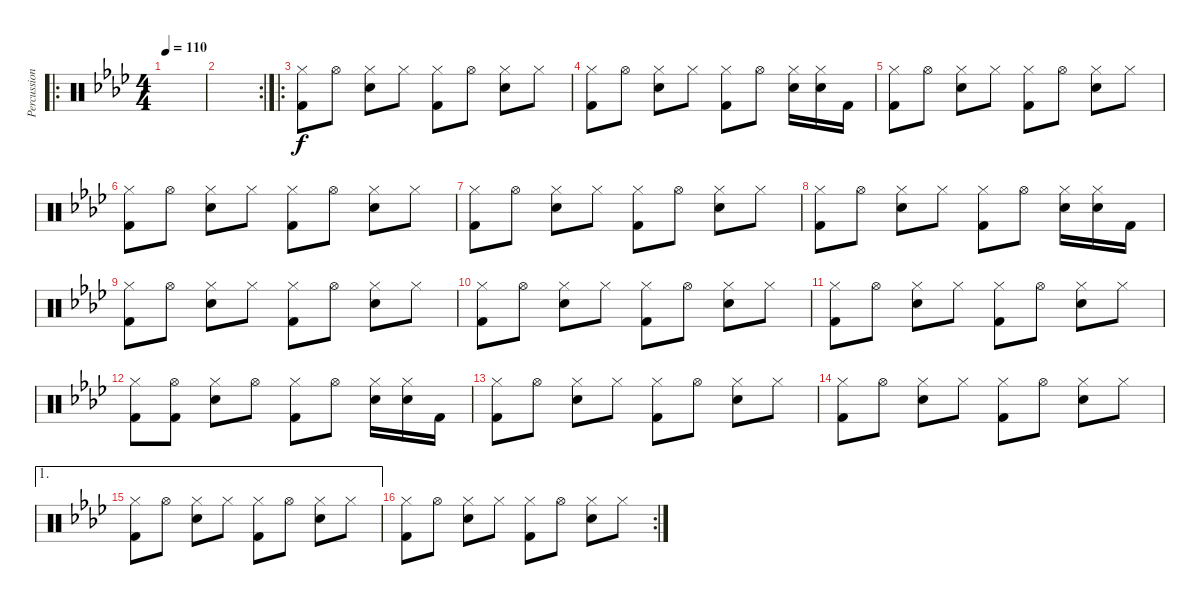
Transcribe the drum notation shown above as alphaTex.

\track ("Percussions" "Percussion") {instrument percussion}
\staff {score}
\articulation defaults
\ro
\ts (4 4)
\tempo 110
\clef neutral
\ks ab
|
\rc 2
|
\ro
("Kick (hit) 2" "Hi-Hat (closed)").8 "Hi-Hat (open)".8 ("Electric Snare (hit)" "Hi-Hat (closed)").8 "Hi-Hat (closed)".8 ("Kick (hit) 2" "Hi-Hat (closed)").8 "Hi-Hat (open)".8 ("Electric Snare (hit)" "Hi-Hat (closed)").8 "Hi-Hat (closed)".8 |
("Hi-Hat (closed)" "Kick (hit) 2").8 "Hi-Hat (open)".8 ("Hi-Hat (closed)" "Electric Snare (hit)").8 "Hi-Hat (closed)".8 ("Hi-Hat (closed)" "Kick (hit) 2").8 "Hi-Hat (open)".8 ("Hi-Hat (closed)" "Electric Snare (hit)").16 ("Hi-Hat (closed)" "Electric Snare (hit)").16 "Kick (hit) 2".16 |
("Kick (hit) 2" "Hi-Hat (closed)").8 "Hi-Hat (open)".8 ("Hi-Hat (closed)" "Electric Snare (hit)").8 "Hi-Hat (closed)".8 ("Hi-Hat (closed)" "Kick (hit) 2").8 "Hi-Hat (open)".8 ("Hi-Hat (closed)" "Electric Snare (hit)").8 "Hi-Hat (closed)".8 |
("Hi-Hat (closed)" "Kick (hit) 2").8 "Hi-Hat (open)".8 ("Hi-Hat (closed)" "Electric Snare (hit)").8 "Hi-Hat (closed)".8 ("Hi-Hat (closed)" "Kick (hit) 2").8 "Hi-Hat (open)".8 ("Hi-Hat (closed)" "Electric Snare (hit)").8 "Hi-Hat (closed)".8 |
("Hi-Hat (closed)" "Kick (hit) 2").8 "Hi-Hat (open)".8 ("Hi-Hat (closed)" "Electric Snare (hit)").8 "Hi-Hat (closed)".8 ("Hi-Hat (closed)" "Kick (hit) 2").8 "Hi-Hat (open)".8 ("Hi-Hat (closed)" "Electric Snare (hit)").8 "Hi-Hat (closed)".8 |
("Hi-Hat (closed)" "Kick (hit) 2").8 "Hi-Hat (open)".8 ("Hi-Hat (closed)" "Electric Snare (hit)").8 "Hi-Hat (closed)".8 ("Hi-Hat (closed)" "Kick (hit) 2").8 "Hi-Hat (open)".8 ("Hi-Hat (closed)" "Electric Snare (hit)").16 ("Hi-Hat (closed)" "Electric Snare (hit)").16 "Kick (hit) 2".16 |
("Hi-Hat (closed)" "Kick (hit) 2").8 "Hi-Hat (open)".8 ("Hi-Hat (closed)" "Electric Snare (hit)").8 "Hi-Hat (closed)".8 ("Hi-Hat (closed)" "Kick (hit) 2").8 "Hi-Hat (open)".8 ("Hi-Hat (closed)" "Electric Snare (hit)").8 "Hi-Hat (closed)".8 |
("Hi-Hat (closed)" "Kick (hit) 2").8 "Hi-Hat (open)".8 ("Hi-Hat (closed)" "Electric Snare (hit)").8 "Hi-Hat (closed)".8 ("Hi-Hat (closed)" "Kick (hit) 2").8 "Hi-Hat (open)".8 ("Hi-Hat (closed)" "Electric Snare (hit)").8 "Hi-Hat (closed)".8 |
("Hi-Hat (closed)" "Kick (hit) 2").8 "Hi-Hat (open)".8 ("Hi-Hat (closed)" "Electric Snare (hit)").8 "Hi-Hat (closed)".8 ("Hi-Hat (closed)" "Kick (hit) 2").8 "Hi-Hat (open)".8 ("Hi-Hat (closed)" "Electric Snare (hit)").8 "Hi-Hat (closed)".8 |
("Hi-Hat (closed)" "Kick (hit) 2").8 ("Kick (hit) 2" "Hi-Hat (open)").8 ("Hi-Hat (closed)" "Electric Snare (hit)").8 "Hi-Hat (open)".8 ("Hi-Hat (closed)" "Kick (hit) 2").8 "Hi-Hat (open)".8 ("Hi-Hat (closed)" "Electric Snare (hit)").16 ("Hi-Hat (closed)" "Electric Snare (hit)").16 "Kick (hit) 2".16 |
("Hi-Hat (closed)" "Kick (hit) 2").8 "Hi-Hat (open)".8 ("Hi-Hat (closed)" "Electric Snare (hit)").8 "Hi-Hat (closed)".8 ("Hi-Hat (closed)" "Kick (hit) 2").8 "Hi-Hat (open)".8 ("Hi-Hat (closed)" "Electric Snare (hit)").8 "Hi-Hat (closed)".8 |
("Hi-Hat (closed)" "Kick (hit) 2").8 "Hi-Hat (open)".8 ("Hi-Hat (closed)" "Electric Snare (hit)").8 "Hi-Hat (closed)".8 ("Hi-Hat (closed)" "Kick (hit) 2").8 "Hi-Hat (open)".8 ("Hi-Hat (closed)" "Electric Snare (hit)").8 "Hi-Hat (closed)".8 |
\ae 1
("Hi-Hat (closed)" "Kick (hit) 2").8 "Hi-Hat (open)".8 ("Hi-Hat (closed)" "Electric Snare (hit)").8 "Hi-Hat (closed)".8 ("Hi-Hat (closed)" "Kick (hit) 2").8 "Hi-Hat (open)".8 ("Hi-Hat (closed)" "Electric Snare (hit)").8 "Hi-Hat (closed)".8 |
\rc 2
("Hi-Hat (closed)" "Kick (hit) 2").8 "Hi-Hat (open)".8 ("Hi-Hat (closed)" "Electric Snare (hit)").8 "Hi-Hat (closed)".8 ("Hi-Hat (closed)" "Kick (hit) 2").8 "Hi-Hat (open)".8 ("Hi-Hat (closed)" "Electric Snare (hit)").8 "Hi-Hat (closed)".8
